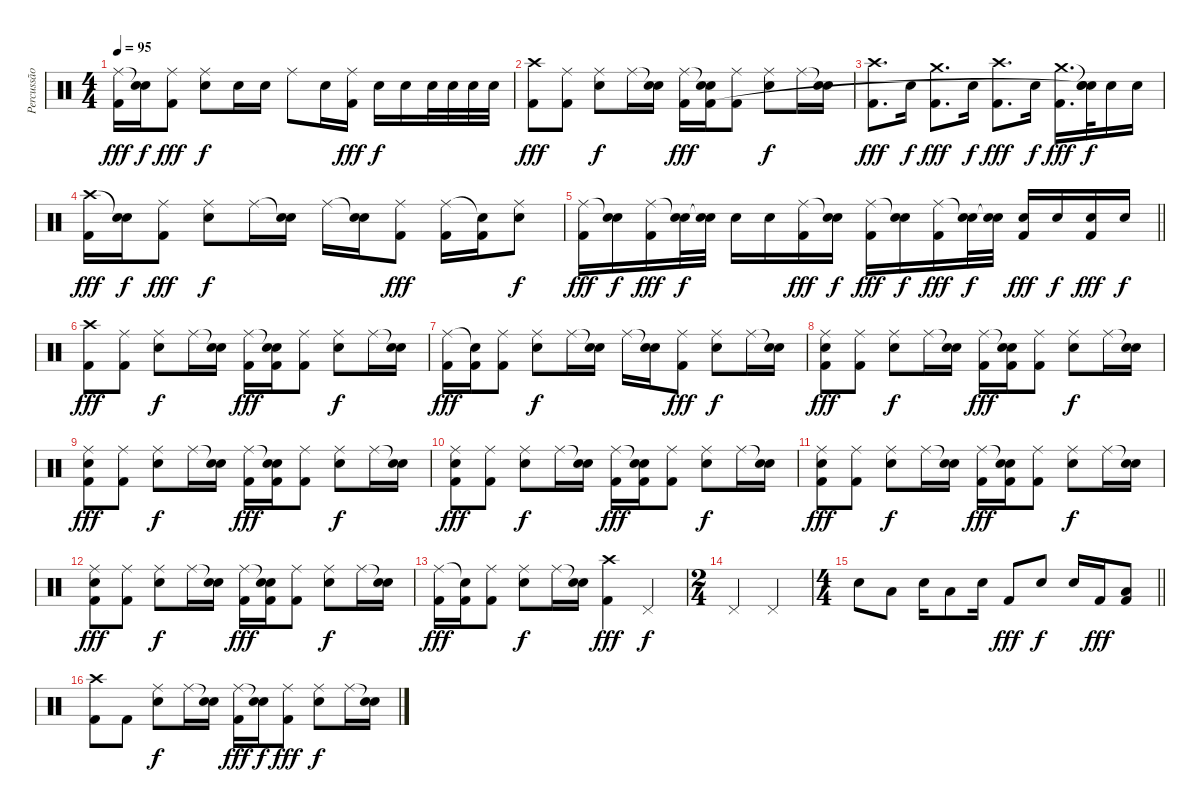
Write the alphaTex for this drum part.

\track ("Percussão" "Percussão") {instrument percussion}
\staff {score}
\articulation defaults
\ts (4 4)
\tempo 95
\clef neutral
\ks c
("Ride (middle)" "Kick (hit) 2").16{dy fff} ("Snare (hit)"{t} "Snare (hit) 2").16{dy f} ("Ride (middle)" "Kick (hit) 2").8{dy fff} ("Ride (middle)" "Snare (hit) 2").8{dy f} "Snare (hit) 2".16 "Snare (hit) 2".16 "Ride (middle)".8 "Snare (hit) 2".16 ("Ride (middle)" "Kick (hit) 2").16{dy fff} "Snare (hit) 2".16{dy f} "Snare (hit) 2".16 "Snare (hit) 2".32 "Snare (hit) 2".32 "Snare (hit) 2".32 "Snare (hit) 2".32 |
("Crash high (hit)" "Kick (hit) 2").8{dy fff} ("Ride (middle)" "Kick (hit) 2").8 ("Ride (middle)" "Snare (hit) 2").8{dy f} "Ride (middle)".16 ("Snare (hit)"{t} "Snare (hit) 2").16 ("Ride (middle)" "Kick (hit) 2").16{dy fff} ("Snare (hit)"{t} "Snare (hit) 2" "Kick (hit) 2").16 ("Ride (middle)" "Kick (hit) 2").8 ("Ride (middle)" "Snare (hit) 2").8{dy f} "Ride (middle)".16 ("Snare (hit)"{t} "Snare (hit) 2").16 |
("Crash high (hit)" "Kick (hit) 2").8{d dy fff} "Snare (hit) 2".16{dy f} ("Crash medium (hit)" "Kick (hit) 2").8{d dy fff} "Snare (hit) 2".16{dy f} ("Crash high (hit)" "Kick (hit) 2").8{d dy fff} "Snare (hit) 2".16{dy f} ("Crash medium (hit)" "Kick (hit) 2").16{d dy fff} ("Snare (hit)"{t} "Snare (hit) 2" "Snare (hit)"{t}).32{dy f} "Snare (hit) 2".16 "Snare (hit) 2".16 |
("Crash high (hit)" "Kick (hit) 2").16{dy fff} ("Snare (hit)"{t} "Snare (hit) 2").16{dy f} ("Ride (middle)" "Kick (hit) 2").8{dy fff} ("Ride (middle)" "Snare (hit) 2").8{dy f} "Ride (middle)".16 ("Snare (hit)"{t} "Snare (hit) 2").16 "Ride (middle)".16 ("Snare (hit)"{t} "Snare (hit) 2").16 ("Ride (middle)" "Kick (hit) 2").8{dy fff} ("Ride (middle)" "Kick (hit) 2").16 ("Snare (hit)"{t} "Kick (hit) 2").16 ("Ride (middle)" "Snare (hit) 2").8{dy f} |
\barLineRight lightlight
("Ride (middle)" "Kick (hit) 2").16{dy fff} ("Snare (hit)"{t} "Snare (hit) 2").16{dy f} ("Ride (middle)" "Kick (hit) 2").16{dy fff} ("Snare (hit)"{t} "Snare (hit) 2").32{dy f} ("Snare (hit)"{t} "Snare (hit) 2").32 "Snare (hit) 2".16 "Snare (hit) 2".16 ("Ride (middle)" "Kick (hit) 2").16{dy fff} ("Snare (hit)"{t} "Snare (hit) 2").16{dy f} ("Ride (middle)" "Kick (hit) 2").16{dy fff} ("Snare (hit)"{t} "Snare (hit) 2").16{dy f} ("Ride (middle)" "Kick (hit) 2").16{dy fff} ("Snare (hit)"{t} "Snare (hit) 2").32{dy f} ("Snare (hit)"{t} "Snare (hit) 2").32 ("Snare (hit) 2" "Kick (hit) 2").16{dy fff} "Snare (hit) 2".16{dy f} ("Snare (hit) 2" "Kick (hit) 2").16{dy fff} "Snare (hit) 2".16{dy f} |
("Crash high (hit)" "Kick (hit) 2").8{dy fff} ("Ride (middle)" "Kick (hit) 2").8 ("Ride (middle)" "Snare (hit) 2").8{dy f} "Ride (middle)".16 ("Snare (hit)"{t} "Snare (hit) 2").16 ("Ride (middle)" "Kick (hit) 2").16{dy fff} ("Snare (hit)"{t} "Snare (hit) 2" "Kick (hit) 2").16 ("Ride (middle)" "Kick (hit) 2").8 ("Ride (middle)" "Snare (hit) 2").8{dy f} "Ride (middle)".16 ("Snare (hit)"{t} "Snare (hit) 2").16 |
("Ride (middle)" "Kick (hit) 2").16{dy fff} ("Snare (hit)"{t} "Kick (hit) 2").16 ("Ride (middle)" "Kick (hit) 2").8 ("Ride (middle)" "Snare (hit) 2").8{dy f} "Ride (middle)".16 ("Snare (hit)"{t} "Snare (hit) 2").16 "Ride (middle)".16 ("Snare (hit)"{t} "Snare (hit) 2").16 ("Ride (middle)" "Kick (hit) 2").8{dy fff} ("Ride (middle)" "Snare (hit) 2").8{dy f} "Ride (middle)".16 ("Snare (hit)"{t} "Snare (hit) 2").16 |
("Ride (middle)" "Snare (hit) 2" "Kick (hit) 2").8{dy fff} ("Ride (middle)" "Kick (hit) 2").8 ("Ride (middle)" "Snare (hit) 2").8{dy f} "Ride (middle)".16 ("Snare (hit)"{t} "Snare (hit) 2").16 ("Ride (middle)" "Kick (hit) 2").16{dy fff} ("Snare (hit)"{t} "Snare (hit) 2" "Kick (hit) 2").16 ("Ride (middle)" "Kick (hit) 2").8 ("Ride (middle)" "Snare (hit) 2").8{dy f} "Ride (middle)".16 ("Snare (hit)"{t} "Snare (hit) 2").16 |
("Ride (middle)" "Snare (hit) 2" "Kick (hit) 2").8{dy fff} ("Ride (middle)" "Kick (hit) 2").8 ("Ride (middle)" "Snare (hit) 2").8{dy f} "Ride (middle)".16 ("Snare (hit)"{t} "Snare (hit) 2").16 ("Ride (middle)" "Kick (hit) 2").16{dy fff} ("Snare (hit)"{t} "Snare (hit) 2" "Kick (hit) 2").16 ("Ride (middle)" "Kick (hit) 2").8 ("Ride (middle)" "Snare (hit) 2").8{dy f} "Ride (middle)".16 ("Snare (hit)"{t} "Snare (hit) 2").16 |
("Ride (middle)" "Snare (hit) 2" "Kick (hit) 2").8{dy fff} ("Ride (middle)" "Kick (hit) 2").8 ("Ride (middle)" "Snare (hit) 2").8{dy f} "Ride (middle)".16 ("Snare (hit)"{t} "Snare (hit) 2").16 ("Ride (middle)" "Kick (hit) 2").16{dy fff} ("Snare (hit)"{t} "Snare (hit) 2" "Kick (hit) 2").16 ("Ride (middle)" "Kick (hit) 2").8 ("Ride (middle)" "Snare (hit) 2").8{dy f} "Ride (middle)".16 ("Snare (hit)"{t} "Snare (hit) 2").16 |
("Ride (middle)" "Snare (hit) 2" "Kick (hit) 2").8{dy fff} ("Ride (middle)" "Kick (hit) 2").8 ("Ride (middle)" "Snare (hit) 2").8{dy f} "Ride (middle)".16 ("Snare (hit)"{t} "Snare (hit) 2").16 ("Ride (middle)" "Kick (hit) 2").16{dy fff} ("Snare (hit)"{t} "Snare (hit) 2" "Kick (hit) 2").16 ("Ride (middle)" "Kick (hit) 2").8 ("Ride (middle)" "Snare (hit) 2").8{dy f} "Ride (middle)".16 ("Snare (hit)"{t} "Snare (hit) 2").16 |
("Ride (middle)" "Snare (hit) 2" "Kick (hit) 2").8{dy fff} ("Ride (middle)" "Kick (hit) 2").8 ("Ride (middle)" "Snare (hit) 2").8{dy f} "Ride (middle)".16 ("Snare (hit)"{t} "Snare (hit) 2").16 ("Ride (middle)" "Kick (hit) 2").16{dy fff} ("Snare (hit)"{t} "Snare (hit) 2" "Kick (hit) 2").16 ("Ride (middle)" "Kick (hit) 2").8 ("Ride (middle)" "Snare (hit) 2").8{dy f} "Ride (middle)".16 ("Snare (hit)"{t} "Snare (hit) 2").16 |
("Ride (middle)" "Kick (hit) 2").16{dy fff} ("Snare (hit)"{t} "Kick (hit) 2").16 ("Ride (middle)" "Kick (hit) 2").8 ("Ride (middle)" "Snare (hit) 2").8{dy f} "Ride (middle)".16 ("Snare (hit)"{t} "Snare (hit) 2").16 ("Crash high (hit)" "Kick (hit) 2").4{dy fff} "Pedal Hi-Hat (hit)".4{dy f} |
\ts (2 4)
"Pedal Hi-Hat (hit)".4 "Pedal Hi-Hat (hit)".4 |
\ts (4 4)
\barLineRight lightlight "Snare (hit) 2".8 "Low Tom (hit)".8 "Snare (hit) 2".16 "Low Tom (hit)".8 "Snare (hit) 2".16 "Kick (hit) 2".8{dy fff} "Snare (hit) 2".8{dy f} "Snare (hit) 2".16 "Kick (hit) 2".16{dy fff}
("Low Tom (hit)" "Kick (hit) 2").8 |
("Crash high (hit)" "Kick (hit) 2").8 "Kick (hit) 2".8 ("Ride (middle)" "Snare (hit) 2").8{dy f} "Ride (middle)".16 ("Snare (hit)"{t} "Snare (hit) 2").16 ("Ride (middle)" "Kick (hit) 2").16{dy fff} ("Snare (hit)"{t} "Snare (hit) 2").16{dy f} ("Ride (middle)" "Kick (hit) 2").8{dy fff} ("Ride (middle)" "Snare (hit) 2").8{dy f} "Ride (middle)".16 ("Snare (hit)"{t} "Snare (hit) 2").16
